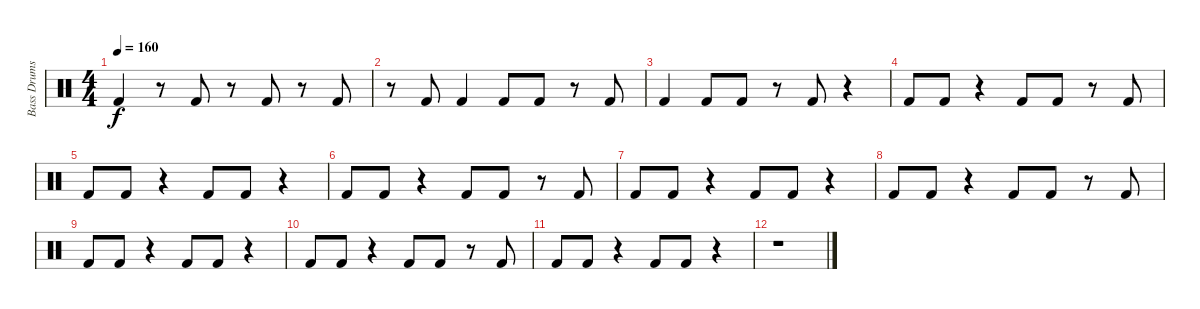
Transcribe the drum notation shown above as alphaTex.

\track ("Bass Drums" "Bass Drums") {instrument percussion}
\staff {score}
\articulation defaults
\ts (4 4)
\tempo 160
\clef neutral
\ks c "Kick (hit) 2".4{dy f}
r.8 "Kick (hit) 2".8 r.8 "Kick (hit) 2".8 r.8 "Kick (hit) 2".8 |
r.8 "Kick (hit) 2".8 "Kick (hit) 2".4 "Kick (hit) 2".8 "Kick (hit) 2".8 r.8 "Kick (hit) 2".8 |
"Kick (hit) 2".4 "Kick (hit) 2".8 "Kick (hit) 2".8 r.8 "Kick (hit) 2".8 r.4 |
"Kick (hit) 2".8 "Kick (hit) 2".8 r.4 "Kick (hit) 2".8 "Kick (hit) 2".8 r.8 "Kick (hit) 2".8 |
"Kick (hit) 2".8 "Kick (hit) 2".8 r.4 "Kick (hit) 2".8 "Kick (hit) 2".8 r.4 |
"Kick (hit) 2".8 "Kick (hit) 2".8 r.4 "Kick (hit) 2".8 "Kick (hit) 2".8 r.8 "Kick (hit) 2".8 |
"Kick (hit) 2".8 "Kick (hit) 2".8 r.4 "Kick (hit) 2".8 "Kick (hit) 2".8 r.4 |
"Kick (hit) 2".8 "Kick (hit) 2".8 r.4 "Kick (hit) 2".8 "Kick (hit) 2".8 r.8 "Kick (hit) 2".8 |
"Kick (hit) 2".8 "Kick (hit) 2".8 r.4 "Kick (hit) 2".8 "Kick (hit) 2".8 r.4 |
"Kick (hit) 2".8 "Kick (hit) 2".8 r.4 "Kick (hit) 2".8 "Kick (hit) 2".8 r.8 "Kick (hit) 2".8 |
"Kick (hit) 2".8 "Kick (hit) 2".8 r.4 "Kick (hit) 2".8 "Kick (hit) 2".8 r.4 |
r.1
